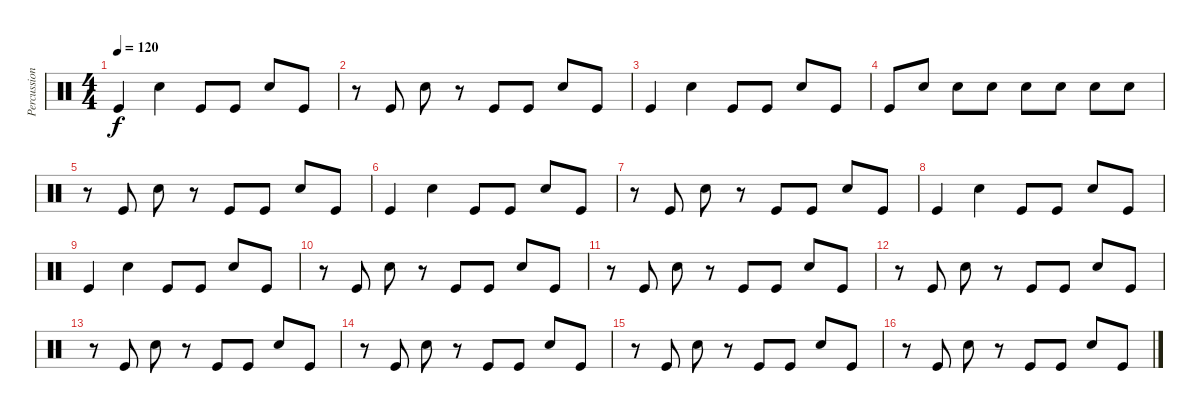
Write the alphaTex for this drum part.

\track ("Percussions" "Percussion") {instrument percussion}
\staff {score}
\articulation defaults
\ts (4 4)
\tempo 120
\clef neutral
\ks c "Kick (hit)".4{dy f} "Electric Snare (hit)".4 "Kick (hit)".8 "Kick (hit)".8 "Electric Snare (hit)".8 "Kick (hit)".8
|
r.8 "Kick (hit)".8 "Electric Snare (hit)".8 r.8 "Kick (hit)".8 "Kick (hit)".8 "Electric Snare (hit)".8 "Kick (hit)".8 |
"Kick (hit)".4 "Electric Snare (hit)".4 "Kick (hit)".8 "Kick (hit)".8 "Electric Snare (hit)".8 "Kick (hit)".8 |
"Kick (hit)".8 "Electric Snare (hit)".8 "Electric Snare (hit)".8 "Electric Snare (hit)".8 "Electric Snare (hit)".8 "Electric Snare (hit)".8 "Electric Snare (hit)".8 "Electric Snare (hit)".8 |
r.8 "Kick (hit)".8 "Electric Snare (hit)".8 r.8 "Kick (hit)".8 "Kick (hit)".8 "Electric Snare (hit)".8 "Kick (hit)".8 |
"Kick (hit)".4 "Electric Snare (hit)".4 "Kick (hit)".8 "Kick (hit)".8 "Electric Snare (hit)".8 "Kick (hit)".8 |
r.8 "Kick (hit)".8 "Electric Snare (hit)".8 r.8 "Kick (hit)".8 "Kick (hit)".8 "Electric Snare (hit)".8 "Kick (hit)".8 |
"Kick (hit)".4 "Electric Snare (hit)".4 "Kick (hit)".8 "Kick (hit)".8 "Electric Snare (hit)".8 "Kick (hit)".8 |
"Kick (hit)".4 "Electric Snare (hit)".4 "Kick (hit)".8 "Kick (hit)".8 "Electric Snare (hit)".8 "Kick (hit)".8 |
r.8 "Kick (hit)".8 "Electric Snare (hit)".8 r.8 "Kick (hit)".8 "Kick (hit)".8 "Electric Snare (hit)".8 "Kick (hit)".8 |
r.8 "Kick (hit)".8 "Electric Snare (hit)".8 r.8 "Kick (hit)".8 "Kick (hit)".8 "Electric Snare (hit)".8 "Kick (hit)".8 |
r.8 "Kick (hit)".8 "Electric Snare (hit)".8 r.8 "Kick (hit)".8 "Kick (hit)".8 "Electric Snare (hit)".8 "Kick (hit)".8 |
r.8 "Kick (hit)".8 "Electric Snare (hit)".8 r.8 "Kick (hit)".8 "Kick (hit)".8 "Electric Snare (hit)".8 "Kick (hit)".8 |
r.8 "Kick (hit)".8 "Electric Snare (hit)".8 r.8 "Kick (hit)".8 "Kick (hit)".8 "Electric Snare (hit)".8 "Kick (hit)".8 |
r.8 "Kick (hit)".8 "Electric Snare (hit)".8 r.8 "Kick (hit)".8 "Kick (hit)".8 "Electric Snare (hit)".8 "Kick (hit)".8 |
r.8 "Kick (hit)".8 "Electric Snare (hit)".8 r.8 "Kick (hit)".8 "Kick (hit)".8 "Electric Snare (hit)".8 "Kick (hit)".8
